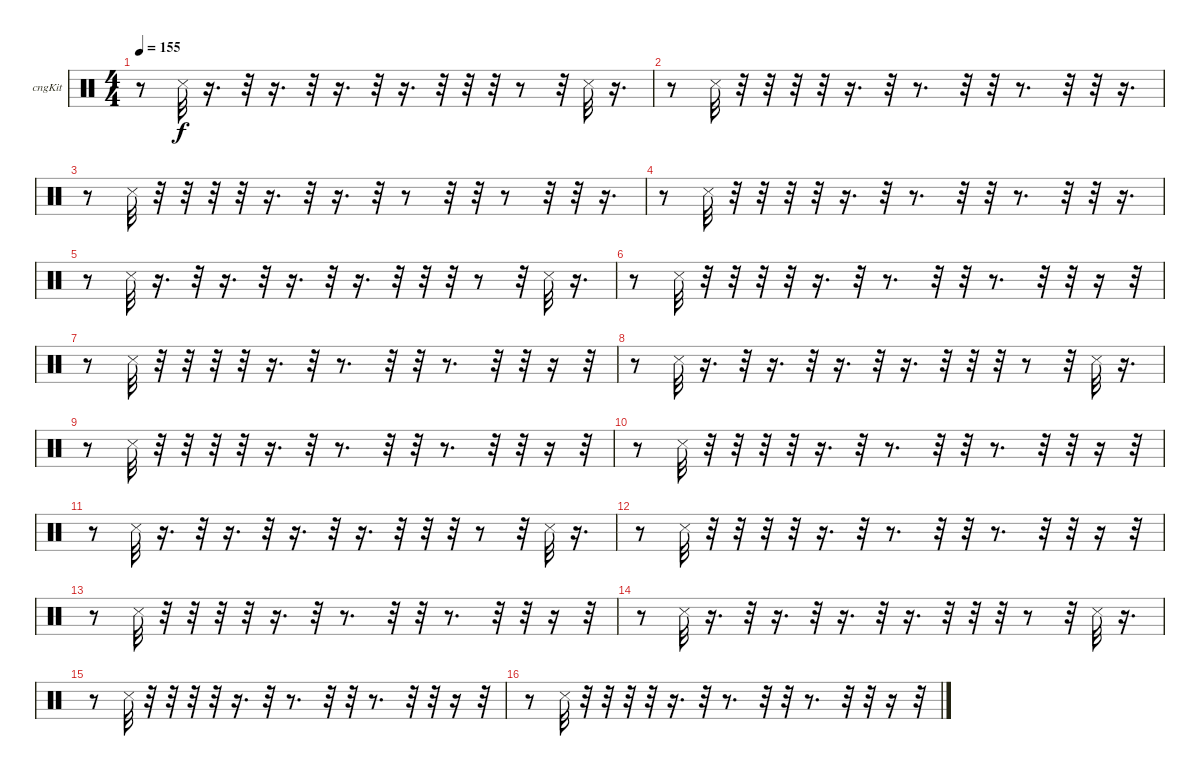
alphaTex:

\bracketExtendMode groupsimilarinstruments
\firstSystemTrackNameOrientation horizontal
\otherSystemsTrackNameOrientation horizontal
\track ("Е. Кулаков" "cngKit") {instrument percussion}
\staff {score}
\articulation defaults
\ts (4 4)
\tempo 155
\clef neutral
\ks c
r.8{dy f} "Snare (side stick) 3".32 r.16{d} r.32 r.16{d} r.32 r.16{d} r.32 r.16{d} r.32 r.32 r.32 r.8 r.32 "Snare (side stick) 3".32 r.16{d} |
r.8 "Snare (side stick) 3".32 r.32 r.32 r.32 r.32 r.16{d} r.32 r.8{d} r.32 r.32 r.8{d} r.32 r.32 r.16{d} |
r.8 "Snare (side stick) 3".32 r.32 r.32 r.32 r.32 r.16{d} r.32 r.16{d} r.32 r.8 r.32 r.32 r.8 r.32 r.32 r.16{d} |
r.8 "Snare (side stick) 3".32 r.32 r.32 r.32 r.32 r.16{d} r.32 r.8{d} r.32 r.32 r.8{d} r.32 r.32 r.16{d} |
r.8 "Snare (side stick) 3".32 r.16{d} r.32 r.16{d} r.32 r.16{d} r.32 r.16{d} r.32 r.32 r.32 r.8 r.32 "Snare (side stick) 3".32 r.16{d} |
r.8 "Snare (side stick) 3".32 r.32 r.32 r.32 r.32 r.16{d} r.32 r.8{d} r.32 r.32 r.8{d} r.32 r.32 r.16 r.32 |
r.8 "Snare (side stick) 3".32 r.32 r.32 r.32 r.32 r.16{d} r.32 r.8{d} r.32 r.32 r.8{d} r.32 r.32 r.16 r.32 |
r.8 "Snare (side stick) 3".32 r.16{d} r.32 r.16{d} r.32 r.16{d} r.32 r.16{d} r.32 r.32 r.32 r.8 r.32 "Snare (side stick) 3".32 r.16{d} |
r.8 "Snare (side stick) 3".32 r.32 r.32 r.32 r.32 r.16{d} r.32 r.8{d} r.32 r.32 r.8{d} r.32 r.32 r.16 r.32 |
r.8 "Snare (side stick) 3".32 r.32 r.32 r.32 r.32 r.16{d} r.32 r.8{d} r.32 r.32 r.8{d} r.32 r.32 r.16 r.32 |
r.8 "Snare (side stick) 3".32 r.16{d} r.32 r.16{d} r.32 r.16{d} r.32 r.16{d} r.32 r.32 r.32 r.8 r.32 "Snare (side stick) 3".32 r.16{d} |
r.8 "Snare (side stick) 3".32 r.32 r.32 r.32 r.32 r.16{d} r.32 r.8{d} r.32 r.32 r.8{d} r.32 r.32 r.16 r.32 |
r.8 "Snare (side stick) 3".32 r.32 r.32 r.32 r.32 r.16{d} r.32 r.8{d} r.32 r.32 r.8{d} r.32 r.32 r.16 r.32 |
r.8 "Snare (side stick) 3".32 r.16{d} r.32 r.16{d} r.32 r.16{d} r.32 r.16{d} r.32 r.32 r.32 r.8 r.32 "Snare (side stick) 3".32 r.16{d} |
r.8 "Snare (side stick) 3".32 r.32 r.32 r.32 r.32 r.16{d} r.32 r.8{d} r.32 r.32 r.8{d} r.32 r.32 r.16 r.32 |
r.8 "Snare (side stick) 3".32 r.32 r.32 r.32 r.32 r.16{d} r.32 r.8{d} r.32 r.32 r.8{d} r.32 r.32 r.16 r.32
